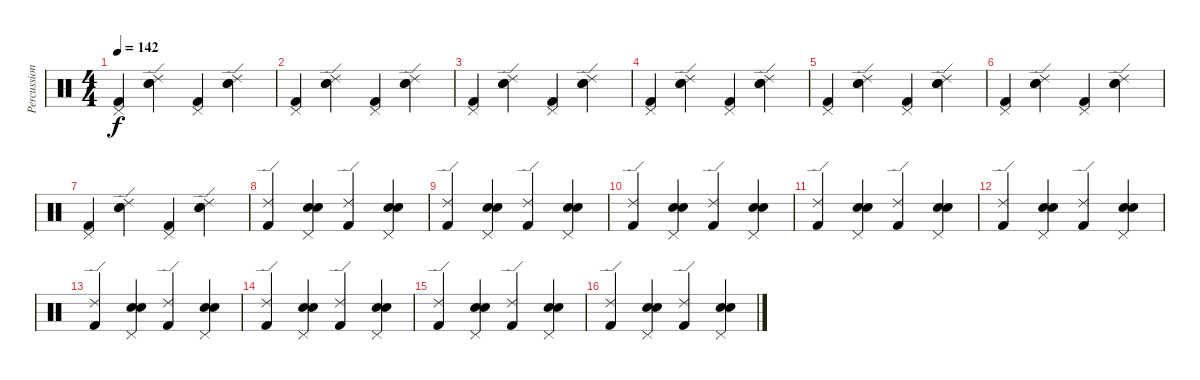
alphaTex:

\track ("Percussions" "Percussion") {instrument percussion}
\staff {score}
\articulation defaults
\ts (4 4)
\tempo 142
\clef neutral
\ks c
("Kick (hit) 2" "Pedal Hi-Hat (hit)").4{dy f} ("Snare (hit) 2" "Electric Snare (hit)" "Ride (edge) 2").4 ("Kick (hit) 2" "Pedal Hi-Hat (hit)").4 ("Snare (hit) 2" "Electric Snare (hit)" "Ride (edge) 2").4 |
("Kick (hit) 2" "Pedal Hi-Hat (hit)").4 ("Snare (hit) 2" "Electric Snare (hit)" "Ride (edge) 2").4 ("Kick (hit) 2" "Pedal Hi-Hat (hit)").4 ("Snare (hit) 2" "Electric Snare (hit)" "Ride (edge) 2").4 |
("Kick (hit) 2" "Pedal Hi-Hat (hit)").4 ("Snare (hit) 2" "Electric Snare (hit)" "Ride (edge) 2").4 ("Kick (hit) 2" "Pedal Hi-Hat (hit)").4 ("Snare (hit) 2" "Electric Snare (hit)" "Ride (edge) 2").4 |
("Kick (hit) 2" "Pedal Hi-Hat (hit)").4 ("Snare (hit) 2" "Electric Snare (hit)" "Ride (edge) 2").4 ("Kick (hit) 2" "Pedal Hi-Hat (hit)").4 ("Snare (hit) 2" "Electric Snare (hit)" "Ride (edge) 2").4 |
("Kick (hit) 2" "Pedal Hi-Hat (hit)").4 ("Snare (hit) 2" "Electric Snare (hit)" "Ride (edge) 2").4 ("Kick (hit) 2" "Pedal Hi-Hat (hit)").4 ("Snare (hit) 2" "Electric Snare (hit)" "Ride (edge) 2").4 |
("Kick (hit) 2" "Pedal Hi-Hat (hit)").4 ("Snare (hit) 2" "Electric Snare (hit)" "Ride (edge) 2").4 ("Kick (hit) 2" "Pedal Hi-Hat (hit)").4 ("Snare (hit) 2" "Electric Snare (hit)" "Ride (edge) 2").4 |
("Kick (hit) 2" "Pedal Hi-Hat (hit)").4 ("Snare (hit) 2" "Electric Snare (hit)" "Ride (edge) 2").4 ("Kick (hit) 2" "Pedal Hi-Hat (hit)").4 ("Snare (hit) 2" "Electric Snare (hit)" "Ride (edge) 2").4 |
("Kick (hit) 2" "Ride (edge) 2").4 ("Snare (hit) 2" "Electric Snare (hit)" "Pedal Hi-Hat (hit)").4 ("Kick (hit) 2" "Ride (edge) 2").4 ("Snare (hit) 2" "Electric Snare (hit)" "Pedal Hi-Hat (hit)").4 |
("Kick (hit) 2" "Ride (edge) 2").4 ("Snare (hit) 2" "Electric Snare (hit)" "Pedal Hi-Hat (hit)").4 ("Kick (hit) 2" "Ride (edge) 2").4 ("Snare (hit) 2" "Electric Snare (hit)" "Pedal Hi-Hat (hit)").4 |
("Kick (hit) 2" "Ride (edge) 2").4 ("Snare (hit) 2" "Electric Snare (hit)" "Pedal Hi-Hat (hit)").4 ("Kick (hit) 2" "Ride (edge) 2").4 ("Snare (hit) 2" "Electric Snare (hit)" "Pedal Hi-Hat (hit)").4 |
("Kick (hit) 2" "Ride (edge) 2").4 ("Snare (hit) 2" "Electric Snare (hit)" "Pedal Hi-Hat (hit)").4 ("Kick (hit) 2" "Ride (edge) 2").4 ("Snare (hit) 2" "Electric Snare (hit)" "Pedal Hi-Hat (hit)").4 |
("Kick (hit) 2" "Ride (edge) 2").4 ("Snare (hit) 2" "Electric Snare (hit)" "Pedal Hi-Hat (hit)").4 ("Kick (hit) 2" "Ride (edge) 2").4 ("Snare (hit) 2" "Electric Snare (hit)" "Pedal Hi-Hat (hit)").4 |
("Kick (hit) 2" "Ride (edge) 2").4 ("Snare (hit) 2" "Electric Snare (hit)" "Pedal Hi-Hat (hit)").4 ("Kick (hit) 2" "Ride (edge) 2").4 ("Snare (hit) 2" "Electric Snare (hit)" "Pedal Hi-Hat (hit)").4 |
("Kick (hit) 2" "Ride (edge) 2").4 ("Snare (hit) 2" "Electric Snare (hit)" "Pedal Hi-Hat (hit)").4 ("Kick (hit) 2" "Ride (edge) 2").4 ("Snare (hit) 2" "Electric Snare (hit)" "Pedal Hi-Hat (hit)").4 |
("Kick (hit) 2" "Ride (edge) 2").4 ("Snare (hit) 2" "Electric Snare (hit)" "Pedal Hi-Hat (hit)").4 ("Kick (hit) 2" "Ride (edge) 2").4 ("Snare (hit) 2" "Electric Snare (hit)" "Pedal Hi-Hat (hit)").4 |
("Kick (hit) 2" "Ride (edge) 2").4 ("Snare (hit) 2" "Electric Snare (hit)" "Pedal Hi-Hat (hit)").4 ("Kick (hit) 2" "Ride (edge) 2").4 ("Snare (hit) 2" "Electric Snare (hit)" "Pedal Hi-Hat (hit)").4
